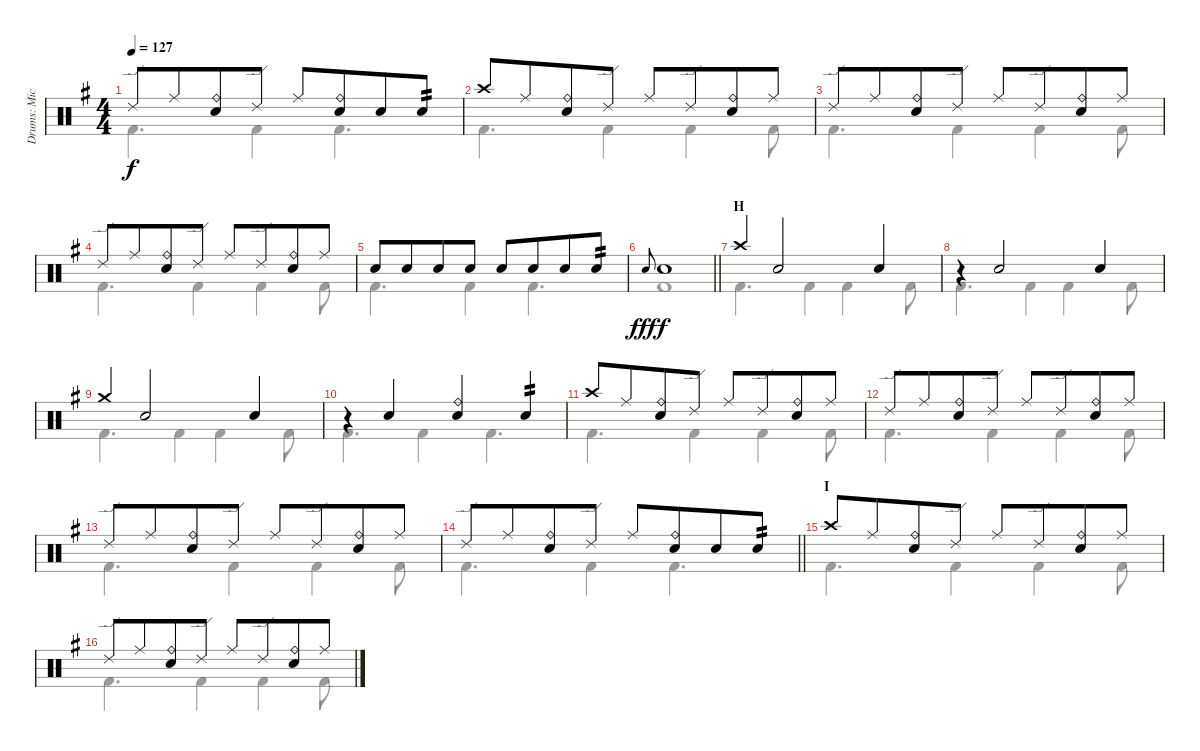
\track ("Drums: Mick" "Drums: Mic") {instrument percussion}
\staff {score}
\articulation defaults
\voice
\ts (4 4)
\tempo 127
\clef neutral
\ks g "Ride (edge) 2".8{dy f} "Ride (middle)".8{beam merge}
("Ride (bell)" "Electric Snare (hit)").8 "Ride (edge) 2".8 "Ride (middle)".8{beam merge} ("Ride (bell)" "Electric Snare (hit)").8{beam merge} "Electric Snare (hit)".8 "Electric Snare (hit)".8{tp 2} |
"Crash high (hit)".8 "Ride (middle)".8{beam merge} ("Ride (bell)" "Electric Snare (hit)").8 "Ride (edge) 2".8 "Ride (middle)".8 "Ride (edge) 2".8{beam merge} ("Ride (bell)" "Electric Snare (hit)").8 "Ride (middle)".8 |
"Ride (edge) 2".8 "Ride (middle)".8{beam merge} ("Ride (bell)" "Electric Snare (hit)").8 "Ride (edge) 2".8 "Ride (middle)".8 "Ride (edge) 2".8{beam merge} ("Ride (bell)" "Electric Snare (hit)").8 "Ride (middle)".8 |
"Ride (edge) 2".8 "Ride (middle)".8{beam merge} ("Ride (bell)" "Electric Snare (hit)").8 "Ride (edge) 2".8 "Ride (middle)".8 "Ride (edge) 2".8{beam merge} ("Ride (bell)" "Electric Snare (hit)").8 "Ride (middle)".8 |
"Electric Snare (hit)".8 "Electric Snare (hit)".8{beam merge} "Electric Snare (hit)".8 "Electric Snare (hit)".8 "Electric Snare (hit)".8{beam merge} "Electric Snare (hit)".8{beam merge} "Electric Snare (hit)".8 "Electric Snare (hit)".8{tp 2} |
\barLineRight lightlight "Electric Snare (hit)".8{gr onbeat dy fff} "Snare (hit) 2".1{dy f}
|
\section ("" "H")
"Crash high (hit)".4{beam merge} "Electric Snare (hit)".2{beam merge} "Electric Snare (hit)".4 |
r.4{beam merge} "Electric Snare (hit)".2{beam merge} "Electric Snare (hit)".4 |
"Crash medium (hit)".4{beam merge} "Electric Snare (hit)".2{beam merge} "Electric Snare (hit)".4 |
r.4{beam merge} "Electric Snare (hit)".4{beam merge} ("Ride (bell)" "Electric Snare (hit)").4{beam merge} "Snare (hit) 2".4{tp 2} |
"Crash high (hit)".8 "Ride (middle)".8{beam merge} ("Ride (bell)" "Electric Snare (hit)").8 "Ride (edge) 2".8 "Ride (middle)".8 "Ride (edge) 2".8{beam merge} ("Ride (bell)" "Electric Snare (hit)").8 "Ride (middle)".8 |
"Ride (edge) 2".8 "Ride (middle)".8{beam merge} ("Ride (bell)" "Electric Snare (hit)").8 "Ride (edge) 2".8 "Ride (middle)".8 "Ride (edge) 2".8{beam merge} ("Ride (bell)" "Electric Snare (hit)").8 "Ride (middle)".8 |
"Ride (edge) 2".8 "Ride (middle)".8{beam merge} ("Ride (bell)" "Electric Snare (hit)").8 "Ride (edge) 2".8 "Ride (middle)".8 "Ride (edge) 2".8{beam merge} ("Ride (bell)" "Electric Snare (hit)").8 "Ride (middle)".8 |
\barLineRight lightlight "Ride (edge) 2".8 "Ride (middle)".8{beam merge}
("Ride (bell)" "Electric Snare (hit)").8 "Ride (edge) 2".8 "Ride (middle)".8{beam merge} ("Ride (bell)" "Electric Snare (hit)").8{beam merge} "Electric Snare (hit)".8 "Electric Snare (hit)".8{tp 2} |
\section ("" "I")
"Crash high (hit)".8 "Ride (middle)".8{beam merge} ("Ride (bell)" "Electric Snare (hit)").8 "Ride (edge) 2".8 "Ride (middle)".8 "Ride (edge) 2".8{beam merge} ("Ride (bell)" "Electric Snare (hit)").8 "Ride (middle)".8 |
"Ride (edge) 2".8 "Ride (middle)".8{beam merge} ("Ride (bell)" "Electric Snare (hit)").8 "Ride (edge) 2".8 "Ride (middle)".8 "Ride (edge) 2".8{beam merge} ("Ride (bell)" "Electric Snare (hit)").8 "Ride (middle)".8
\voice
\clef neutral
\ottava regular
\simile none
\ks g "Kick (hit) 2".4{d dy f} "Kick (hit) 2".4 "Kick (hit) 2".4{d}
|
"Kick (hit) 2".4{d} "Kick (hit) 2".4 "Kick (hit) 2".4 "Kick (hit) 2".8 |
"Kick (hit) 2".4{d} "Kick (hit) 2".4 "Kick (hit) 2".4 "Kick (hit) 2".8 |
"Kick (hit) 2".4{d} "Kick (hit) 2".4 "Kick (hit) 2".4 "Kick (hit) 2".8 |
"Kick (hit) 2".4{d} "Kick (hit) 2".4 "Kick (hit) 2".4{d} |
\barLineRight lightlight "Kick (hit) 2".1
|
"Kick (hit) 2".4{d} "Kick (hit) 2".4 "Kick (hit) 2".4 "Kick (hit) 2".8 |
"Kick (hit) 2".4{d} "Kick (hit) 2".4 "Kick (hit) 2".4 "Kick (hit) 2".8 |
"Kick (hit) 2".4{d} "Kick (hit) 2".4 "Kick (hit) 2".4 "Kick (hit) 2".8 |
"Kick (hit) 2".4{d} "Kick (hit) 2".4 "Kick (hit) 2".4{d} |
"Kick (hit) 2".4{d} "Kick (hit) 2".4 "Kick (hit) 2".4 "Kick (hit) 2".8 |
"Kick (hit) 2".4{d} "Kick (hit) 2".4 "Kick (hit) 2".4 "Kick (hit) 2".8 |
"Kick (hit) 2".4{d} "Kick (hit) 2".4 "Kick (hit) 2".4 "Kick (hit) 2".8 |
\barLineRight lightlight "Kick (hit) 2".4{d} "Kick (hit) 2".4 "Kick (hit) 2".4{d}
|
"Kick (hit) 2".4{d} "Kick (hit) 2".4 "Kick (hit) 2".4 "Kick (hit) 2".8 |
"Kick (hit) 2".4{d} "Kick (hit) 2".4 "Kick (hit) 2".4 "Kick (hit) 2".8
